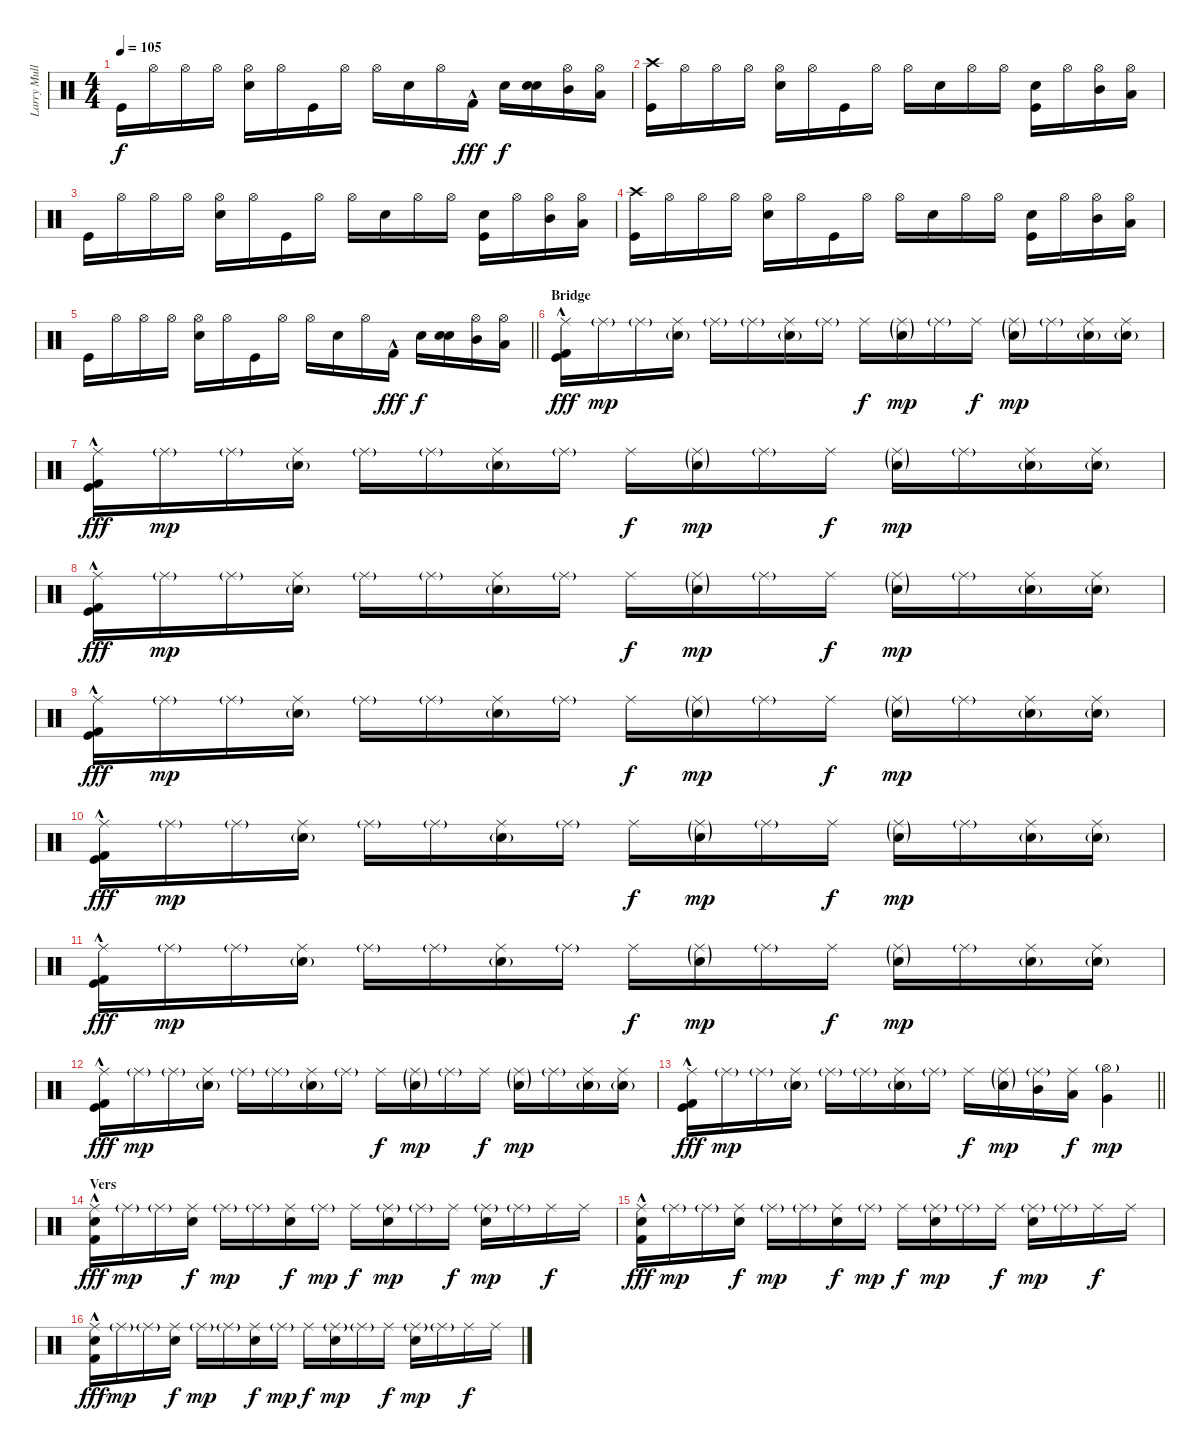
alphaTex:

\track ("Larry Mullen Jr." "Larry Mull") {instrument percussion}
\staff {score}
\articulation defaults
\ts (4 4)
\tempo 105
\clef neutral
\ks c "Kick (hit)".16{dy f} "Hi-Hat (open)".16 "Hi-Hat (open)".16 "Hi-Hat (open)".16
("Hi-Hat (open)" "Snare (hit) 2").16 "Hi-Hat (open)".16 "Kick (hit)".16 "Hi-Hat (open)".16 "Hi-Hat (open)".16 "Electric Snare (hit)".16 "Hi-Hat (open)".16 "Kick (hit) 2"{hac}.16{dy fff} "Snare (hit) 2".16{dy f} ("Snare (hit) 2" "Electric Snare (hit)").16 ("Hi-Hat (open)" "Mid Tom (hit)").16 ("Hi-Hat (open)" "Low Tom (hit)").16 |
("Crash high (hit)" "Kick (hit)").16 "Hi-Hat (open)".16 "Hi-Hat (open)".16 "Hi-Hat (open)".16 ("Hi-Hat (open)" "Snare (hit) 2").16 "Hi-Hat (open)".16 "Kick (hit)".16 "Hi-Hat (open)".16 "Hi-Hat (open)".16 "Electric Snare (hit)".16 "Hi-Hat (open)".16 "Hi-Hat (open)".16 ("Snare (hit) 2" "Kick (hit)").16 "Hi-Hat (open)".16 ("Hi-Hat (open)" "Mid Tom (hit)").16 ("Hi-Hat (open)" "Low Tom (hit)").16 |
"Kick (hit)".16 "Hi-Hat (open)".16 "Hi-Hat (open)".16 "Hi-Hat (open)".16 ("Hi-Hat (open)" "Snare (hit) 2").16 "Hi-Hat (open)".16 "Kick (hit)".16 "Hi-Hat (open)".16 "Hi-Hat (open)".16 "Electric Snare (hit)".16 "Hi-Hat (open)".16 "Hi-Hat (open)".16 ("Snare (hit) 2" "Kick (hit)").16 "Hi-Hat (open)".16 ("Hi-Hat (open)" "Mid Tom (hit)").16 ("Hi-Hat (open)" "Low Tom (hit)").16 |
("Crash high (hit)" "Kick (hit)").16 "Hi-Hat (open)".16 "Hi-Hat (open)".16 "Hi-Hat (open)".16 ("Hi-Hat (open)" "Snare (hit) 2").16 "Hi-Hat (open)".16 "Kick (hit)".16 "Hi-Hat (open)".16 "Hi-Hat (open)".16 "Electric Snare (hit)".16 "Hi-Hat (open)".16 "Hi-Hat (open)".16 ("Snare (hit) 2" "Kick (hit)").16 "Hi-Hat (open)".16 ("Hi-Hat (open)" "Mid Tom (hit)").16 ("Hi-Hat (open)" "Low Tom (hit)").16 |
\barLineRight lightlight "Kick (hit)".16 "Hi-Hat (open)".16 "Hi-Hat (open)".16 "Hi-Hat (open)".16
("Hi-Hat (open)" "Snare (hit) 2").16 "Hi-Hat (open)".16 "Kick (hit)".16 "Hi-Hat (open)".16 "Hi-Hat (open)".16 "Electric Snare (hit)".16 "Hi-Hat (open)".16 "Kick (hit) 2"{hac}.16{dy fff} "Snare (hit) 2".16{dy f} ("Snare (hit) 2" "Electric Snare (hit)").16 ("Hi-Hat (open)" "Mid Tom (hit)").16 ("Hi-Hat (open)" "Low Tom (hit)").16 |
\section ("" "Bridge")
("Ride (middle)" "Kick (hit)" "Kick (hit) 2"{hac}).16{dy fff} "Ride (middle)"{g}.16{dy mp} "Ride (middle)"{g}.16 ("Ride (middle)" "Snare (hit) 2"{g}).16 "Ride (middle)"{g}.16 "Ride (middle)"{g}.16 ("Ride (middle)" "Snare (hit) 2"{g}).16 "Ride (middle)"{g}.16 "Ride (middle)".16{dy f} ("Ride (middle)"{g} "Snare (hit) 2"{g}).16{dy mp} "Ride (middle)"{g}.16 "Ride (middle)".16{dy f} ("Ride (middle)"{g} "Snare (hit) 2"{g}).16{dy mp} "Ride (middle)"{g}.16 ("Ride (middle)" "Snare (hit) 2"{g}).16 ("Ride (middle)" "Snare (hit) 2"{g}).16 |
("Ride (middle)" "Kick (hit)" "Kick (hit) 2"{hac}).16{dy fff} "Ride (middle)"{g}.16{dy mp} "Ride (middle)"{g}.16 ("Ride (middle)" "Snare (hit) 2"{g}).16 "Ride (middle)"{g}.16 "Ride (middle)"{g}.16 ("Ride (middle)" "Snare (hit) 2"{g}).16 "Ride (middle)"{g}.16 "Ride (middle)".16{dy f} ("Ride (middle)"{g} "Snare (hit) 2"{g}).16{dy mp} "Ride (middle)"{g}.16 "Ride (middle)".16{dy f} ("Ride (middle)"{g} "Snare (hit) 2"{g}).16{dy mp} "Ride (middle)"{g}.16 ("Ride (middle)" "Snare (hit) 2"{g}).16 ("Ride (middle)" "Snare (hit) 2"{g}).16 |
("Ride (middle)" "Kick (hit)" "Kick (hit) 2"{hac}).16{dy fff} "Ride (middle)"{g}.16{dy mp} "Ride (middle)"{g}.16 ("Ride (middle)" "Snare (hit) 2"{g}).16 "Ride (middle)"{g}.16 "Ride (middle)"{g}.16 ("Ride (middle)" "Snare (hit) 2"{g}).16 "Ride (middle)"{g}.16 "Ride (middle)".16{dy f} ("Ride (middle)"{g} "Snare (hit) 2"{g}).16{dy mp} "Ride (middle)"{g}.16 "Ride (middle)".16{dy f} ("Ride (middle)"{g} "Snare (hit) 2"{g}).16{dy mp} "Ride (middle)"{g}.16 ("Ride (middle)" "Snare (hit) 2"{g}).16 ("Ride (middle)" "Snare (hit) 2"{g}).16 |
("Ride (middle)" "Kick (hit)" "Kick (hit) 2"{hac}).16{dy fff} "Ride (middle)"{g}.16{dy mp} "Ride (middle)"{g}.16 ("Ride (middle)" "Snare (hit) 2"{g}).16 "Ride (middle)"{g}.16 "Ride (middle)"{g}.16 ("Ride (middle)" "Snare (hit) 2"{g}).16 "Ride (middle)"{g}.16 "Ride (middle)".16{dy f} ("Ride (middle)"{g} "Snare (hit) 2"{g}).16{dy mp} "Ride (middle)"{g}.16 "Ride (middle)".16{dy f} ("Ride (middle)"{g} "Snare (hit) 2"{g}).16{dy mp} "Ride (middle)"{g}.16 ("Ride (middle)" "Snare (hit) 2"{g}).16 ("Ride (middle)" "Snare (hit) 2"{g}).16 |
("Ride (middle)" "Kick (hit)" "Kick (hit) 2"{hac}).16{dy fff} "Ride (middle)"{g}.16{dy mp} "Ride (middle)"{g}.16 ("Ride (middle)" "Snare (hit) 2"{g}).16 "Ride (middle)"{g}.16 "Ride (middle)"{g}.16 ("Ride (middle)" "Snare (hit) 2"{g}).16 "Ride (middle)"{g}.16 "Ride (middle)".16{dy f} ("Ride (middle)"{g} "Snare (hit) 2"{g}).16{dy mp} "Ride (middle)"{g}.16 "Ride (middle)".16{dy f} ("Ride (middle)"{g} "Snare (hit) 2"{g}).16{dy mp} "Ride (middle)"{g}.16 ("Ride (middle)" "Snare (hit) 2"{g}).16 ("Ride (middle)" "Snare (hit) 2"{g}).16 |
("Ride (middle)" "Kick (hit)" "Kick (hit) 2"{hac}).16{dy fff} "Ride (middle)"{g}.16{dy mp} "Ride (middle)"{g}.16 ("Ride (middle)" "Snare (hit) 2"{g}).16 "Ride (middle)"{g}.16 "Ride (middle)"{g}.16 ("Ride (middle)" "Snare (hit) 2"{g}).16 "Ride (middle)"{g}.16 "Ride (middle)".16{dy f} ("Ride (middle)"{g} "Snare (hit) 2"{g}).16{dy mp} "Ride (middle)"{g}.16 "Ride (middle)".16{dy f} ("Ride (middle)"{g} "Snare (hit) 2"{g}).16{dy mp} "Ride (middle)"{g}.16 ("Ride (middle)" "Snare (hit) 2"{g}).16 ("Ride (middle)" "Snare (hit) 2"{g}).16 |
("Ride (middle)" "Kick (hit)" "Kick (hit) 2"{hac}).16{dy fff} "Ride (middle)"{g}.16{dy mp} "Ride (middle)"{g}.16 ("Ride (middle)" "Snare (hit) 2"{g}).16 "Ride (middle)"{g}.16 "Ride (middle)"{g}.16 ("Ride (middle)" "Snare (hit) 2"{g}).16 "Ride (middle)"{g}.16 "Ride (middle)".16{dy f} ("Ride (middle)"{g} "Snare (hit) 2"{g}).16{dy mp} "Ride (middle)"{g}.16 "Ride (middle)".16{dy f} ("Ride (middle)"{g} "Snare (hit) 2"{g}).16{dy mp} "Ride (middle)"{g}.16 ("Ride (middle)" "Snare (hit) 2"{g}).16 ("Ride (middle)" "Snare (hit) 2"{g}).16 |
\barLineRight lightlight
("Ride (middle)" "Kick (hit)" "Kick (hit) 2"{hac}).16{dy fff} "Ride (middle)"{g}.16{dy mp} "Ride (middle)"{g}.16 ("Ride (middle)" "Snare (hit) 2"{g}).16 "Ride (middle)"{g}.16 "Ride (middle)"{g}.16 ("Ride (middle)" "Snare (hit) 2"{g}).16 "Ride (middle)"{g}.16 "Ride (middle)".16{dy f} ("Ride (middle)"{g} "Snare (hit) 2"{g}).16{dy mp} ("Ride (middle)"{g} "Mid Tom (hit)").16 ("Ride (middle)" "Low Tom (hit)").16{dy f} ("Hi-Hat (open)"{g} "Very Low Tom (hit)").4{dy mp} |
\section ("" "Vers")
("Ride (middle)" "Electric Snare (hit)" "Kick (hit) 2"{hac}).16{dy fff} "Ride (middle)"{g}.16{dy mp} "Ride (middle)"{g}.16 ("Ride (middle)" "Electric Snare (hit)").16{dy f} "Ride (middle)"{g}.16{dy mp} "Ride (middle)"{g}.16 ("Ride (middle)" "Electric Snare (hit)").16{dy f} "Ride (middle)"{g}.16{dy mp} "Ride (middle)".16{dy f} ("Ride (middle)"{g} "Electric Snare (hit)").16{dy mp} "Ride (middle)"{g}.16 "Ride (middle)".16{dy f} ("Ride (middle)"{g} "Electric Snare (hit)").16{dy mp} "Ride (middle)"{g}.16 "Ride (middle)".16{dy f} "Ride (middle)".16 |
("Ride (middle)" "Electric Snare (hit)" "Kick (hit) 2"{hac}).16{dy fff} "Ride (middle)"{g}.16{dy mp} "Ride (middle)"{g}.16 ("Ride (middle)" "Electric Snare (hit)").16{dy f} "Ride (middle)"{g}.16{dy mp} "Ride (middle)"{g}.16 ("Ride (middle)" "Electric Snare (hit)").16{dy f} "Ride (middle)"{g}.16{dy mp} "Ride (middle)".16{dy f} ("Ride (middle)"{g} "Electric Snare (hit)").16{dy mp} "Ride (middle)"{g}.16 "Ride (middle)".16{dy f} ("Ride (middle)"{g} "Electric Snare (hit)").16{dy mp} "Ride (middle)"{g}.16 "Ride (middle)".16{dy f} "Ride (middle)".16 |
("Ride (middle)" "Electric Snare (hit)" "Kick (hit) 2"{hac}).16{dy fff} "Ride (middle)"{g}.16{dy mp} "Ride (middle)"{g}.16 ("Ride (middle)" "Electric Snare (hit)").16{dy f} "Ride (middle)"{g}.16{dy mp} "Ride (middle)"{g}.16 ("Ride (middle)" "Electric Snare (hit)").16{dy f} "Ride (middle)"{g}.16{dy mp} "Ride (middle)".16{dy f} ("Ride (middle)"{g} "Electric Snare (hit)").16{dy mp} "Ride (middle)"{g}.16 "Ride (middle)".16{dy f} ("Ride (middle)"{g} "Electric Snare (hit)").16{dy mp} "Ride (middle)"{g}.16 "Ride (middle)".16{dy f} "Ride (middle)".16
